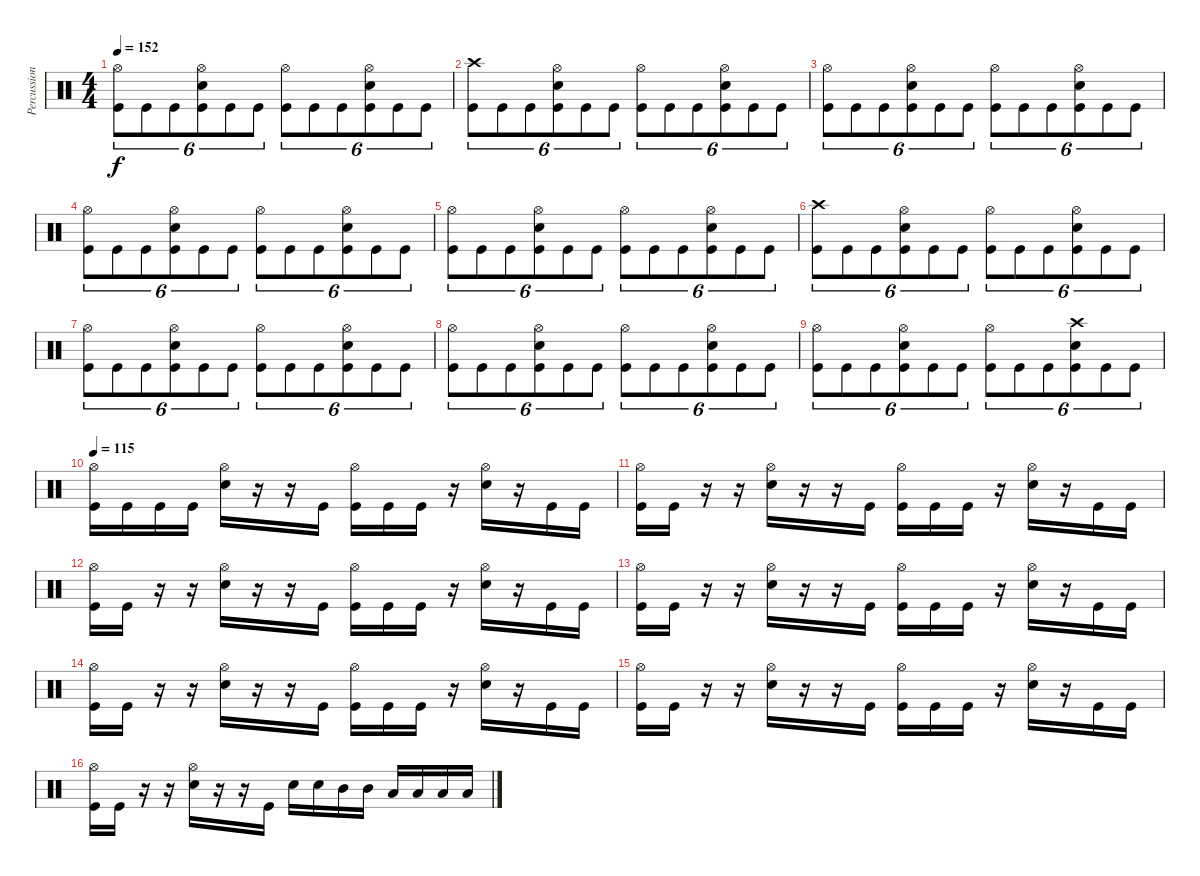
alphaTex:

\track ("Percussion" "Percussion") {instrument percussion}
\staff {score}
\articulation defaults
\ts (4 4)
\tempo 152
\clef neutral
\ks c
("Hi-Hat (open)" "Kick (hit)").8{tu (6 4) dy f} "Kick (hit)".8{tu (6 4)} "Kick (hit)".8{tu (6 4)} ("Hi-Hat (open)" "Snare (hit) 2" "Kick (hit)").8{tu (6 4)} "Kick (hit)".8{tu (6 4)} "Kick (hit)".8{tu (6 4)} ("Hi-Hat (open)" "Kick (hit)").8{tu (6 4)} "Kick (hit)".8{tu (6 4)} "Kick (hit)".8{tu (6 4)} ("Hi-Hat (open)" "Snare (hit) 2" "Kick (hit)").8{tu (6 4)} "Kick (hit)".8{tu (6 4)} "Kick (hit)".8{tu (6 4)} |
("Crash high (hit)" "Kick (hit)").8{tu (6 4)} "Kick (hit)".8{tu (6 4)} "Kick (hit)".8{tu (6 4)} ("Hi-Hat (open)" "Snare (hit) 2" "Kick (hit)").8{tu (6 4)} "Kick (hit)".8{tu (6 4)} "Kick (hit)".8{tu (6 4)} ("Hi-Hat (open)" "Kick (hit)").8{tu (6 4)} "Kick (hit)".8{tu (6 4)} "Kick (hit)".8{tu (6 4)} ("Hi-Hat (open)" "Snare (hit) 2" "Kick (hit)").8{tu (6 4)} "Kick (hit)".8{tu (6 4)} "Kick (hit)".8{tu (6 4)} |
("Hi-Hat (open)" "Kick (hit)").8{tu (6 4)} "Kick (hit)".8{tu (6 4)} "Kick (hit)".8{tu (6 4)} ("Hi-Hat (open)" "Snare (hit) 2" "Kick (hit)").8{tu (6 4)} "Kick (hit)".8{tu (6 4)} "Kick (hit)".8{tu (6 4)} ("Hi-Hat (open)" "Kick (hit)").8{tu (6 4)} "Kick (hit)".8{tu (6 4)} "Kick (hit)".8{tu (6 4)} ("Hi-Hat (open)" "Snare (hit) 2" "Kick (hit)").8{tu (6 4)} "Kick (hit)".8{tu (6 4)} "Kick (hit)".8{tu (6 4)} |
("Hi-Hat (open)" "Kick (hit)").8{tu (6 4)} "Kick (hit)".8{tu (6 4)} "Kick (hit)".8{tu (6 4)} ("Hi-Hat (open)" "Snare (hit) 2" "Kick (hit)").8{tu (6 4)} "Kick (hit)".8{tu (6 4)} "Kick (hit)".8{tu (6 4)} ("Hi-Hat (open)" "Kick (hit)").8{tu (6 4)} "Kick (hit)".8{tu (6 4)} "Kick (hit)".8{tu (6 4)} ("Hi-Hat (open)" "Snare (hit) 2" "Kick (hit)").8{tu (6 4)} "Kick (hit)".8{tu (6 4)} "Kick (hit)".8{tu (6 4)} |
("Hi-Hat (open)" "Kick (hit)").8{tu (6 4)} "Kick (hit)".8{tu (6 4)} "Kick (hit)".8{tu (6 4)} ("Hi-Hat (open)" "Snare (hit) 2" "Kick (hit)").8{tu (6 4)} "Kick (hit)".8{tu (6 4)} "Kick (hit)".8{tu (6 4)} ("Hi-Hat (open)" "Kick (hit)").8{tu (6 4)} "Kick (hit)".8{tu (6 4)} "Kick (hit)".8{tu (6 4)} ("Hi-Hat (open)" "Snare (hit) 2" "Kick (hit)").8{tu (6 4)} "Kick (hit)".8{tu (6 4)} "Kick (hit)".8{tu (6 4)} |
("Crash high (hit)" "Kick (hit)").8{tu (6 4)} "Kick (hit)".8{tu (6 4)} "Kick (hit)".8{tu (6 4)} ("Hi-Hat (open)" "Snare (hit) 2" "Kick (hit)").8{tu (6 4)} "Kick (hit)".8{tu (6 4)} "Kick (hit)".8{tu (6 4)} ("Hi-Hat (open)" "Kick (hit)").8{tu (6 4)} "Kick (hit)".8{tu (6 4)} "Kick (hit)".8{tu (6 4)} ("Hi-Hat (open)" "Snare (hit) 2" "Kick (hit)").8{tu (6 4)} "Kick (hit)".8{tu (6 4)} "Kick (hit)".8{tu (6 4)} |
("Hi-Hat (open)" "Kick (hit)").8{tu (6 4)} "Kick (hit)".8{tu (6 4)} "Kick (hit)".8{tu (6 4)} ("Hi-Hat (open)" "Snare (hit) 2" "Kick (hit)").8{tu (6 4)} "Kick (hit)".8{tu (6 4)} "Kick (hit)".8{tu (6 4)} ("Hi-Hat (open)" "Kick (hit)").8{tu (6 4)} "Kick (hit)".8{tu (6 4)} "Kick (hit)".8{tu (6 4)} ("Hi-Hat (open)" "Snare (hit) 2" "Kick (hit)").8{tu (6 4)} "Kick (hit)".8{tu (6 4)} "Kick (hit)".8{tu (6 4)} |
("Hi-Hat (open)" "Kick (hit)").8{tu (6 4)} "Kick (hit)".8{tu (6 4)} "Kick (hit)".8{tu (6 4)} ("Hi-Hat (open)" "Snare (hit) 2" "Kick (hit)").8{tu (6 4)} "Kick (hit)".8{tu (6 4)} "Kick (hit)".8{tu (6 4)} ("Hi-Hat (open)" "Kick (hit)").8{tu (6 4)} "Kick (hit)".8{tu (6 4)} "Kick (hit)".8{tu (6 4)} ("Hi-Hat (open)" "Snare (hit) 2" "Kick (hit)").8{tu (6 4)} "Kick (hit)".8{tu (6 4)} "Kick (hit)".8{tu (6 4)} |
("Hi-Hat (open)" "Kick (hit)").8{tu (6 4)} "Kick (hit)".8{tu (6 4)} "Kick (hit)".8{tu (6 4)} ("Hi-Hat (open)" "Snare (hit) 2" "Kick (hit)").8{tu (6 4)} "Kick (hit)".8{tu (6 4)} "Kick (hit)".8{tu (6 4)} ("Hi-Hat (open)" "Kick (hit)").8{tu (6 4)} "Kick (hit)".8{tu (6 4)} "Kick (hit)".8{tu (6 4)} ("Crash high (hit)" "Snare (hit) 2" "Kick (hit)").8{tu (6 4)} "Kick (hit)".8{tu (6 4)} "Kick (hit)".8{tu (6 4)} |
\tempo 115
("Hi-Hat (open)" "Kick (hit)").16 "Kick (hit)".16 "Kick (hit)".16 "Kick (hit)".16 ("Hi-Hat (open)" "Snare (hit) 2").16 r.16 r.16 "Kick (hit)".16 ("Hi-Hat (open)" "Kick (hit)").16 "Kick (hit)".16 "Kick (hit)".16 r.16 ("Hi-Hat (open)" "Snare (hit) 2").16 r.16 "Kick (hit)".16 "Kick (hit)".16 |
("Hi-Hat (open)" "Kick (hit)").16 "Kick (hit)".16 r.16 r.16 ("Hi-Hat (open)" "Snare (hit) 2").16 r.16 r.16 "Kick (hit)".16 ("Hi-Hat (open)" "Kick (hit)").16 "Kick (hit)".16 "Kick (hit)".16 r.16 ("Hi-Hat (open)" "Snare (hit) 2").16 r.16 "Kick (hit)".16 "Kick (hit)".16 |
("Hi-Hat (open)" "Kick (hit)").16 "Kick (hit)".16 r.16 r.16 ("Hi-Hat (open)" "Snare (hit) 2").16 r.16 r.16 "Kick (hit)".16 ("Hi-Hat (open)" "Kick (hit)").16 "Kick (hit)".16 "Kick (hit)".16 r.16 ("Hi-Hat (open)" "Snare (hit) 2").16 r.16 "Kick (hit)".16 "Kick (hit)".16 |
("Hi-Hat (open)" "Kick (hit)").16 "Kick (hit)".16 r.16 r.16 ("Hi-Hat (open)" "Snare (hit) 2").16 r.16 r.16 "Kick (hit)".16 ("Hi-Hat (open)" "Kick (hit)").16 "Kick (hit)".16 "Kick (hit)".16 r.16 ("Hi-Hat (open)" "Snare (hit) 2").16 r.16 "Kick (hit)".16 "Kick (hit)".16 |
("Hi-Hat (open)" "Kick (hit)").16 "Kick (hit)".16 r.16 r.16 ("Hi-Hat (open)" "Snare (hit) 2").16 r.16 r.16 "Kick (hit)".16 ("Hi-Hat (open)" "Kick (hit)").16 "Kick (hit)".16 "Kick (hit)".16 r.16 ("Hi-Hat (open)" "Snare (hit) 2").16 r.16 "Kick (hit)".16 "Kick (hit)".16 |
("Hi-Hat (open)" "Kick (hit)").16 "Kick (hit)".16 r.16 r.16 ("Hi-Hat (open)" "Snare (hit) 2").16 r.16 r.16 "Kick (hit)".16 ("Hi-Hat (open)" "Kick (hit)").16 "Kick (hit)".16 "Kick (hit)".16 r.16 ("Hi-Hat (open)" "Snare (hit) 2").16 r.16 "Kick (hit)".16 "Kick (hit)".16 |
("Hi-Hat (open)" "Kick (hit)").16 "Kick (hit)".16 r.16 r.16 ("Hi-Hat (open)" "Snare (hit) 2").16 r.16 r.16 "Kick (hit)".16 "Snare (hit) 2".16 "Snare (hit) 2".16 "Mid Tom (hit)".16 "Mid Tom (hit)".16 "Low Tom (hit)".16 "Low Tom (hit)".16 "Low Floor Tom (hit)".16 "Low Floor Tom (hit)".16
